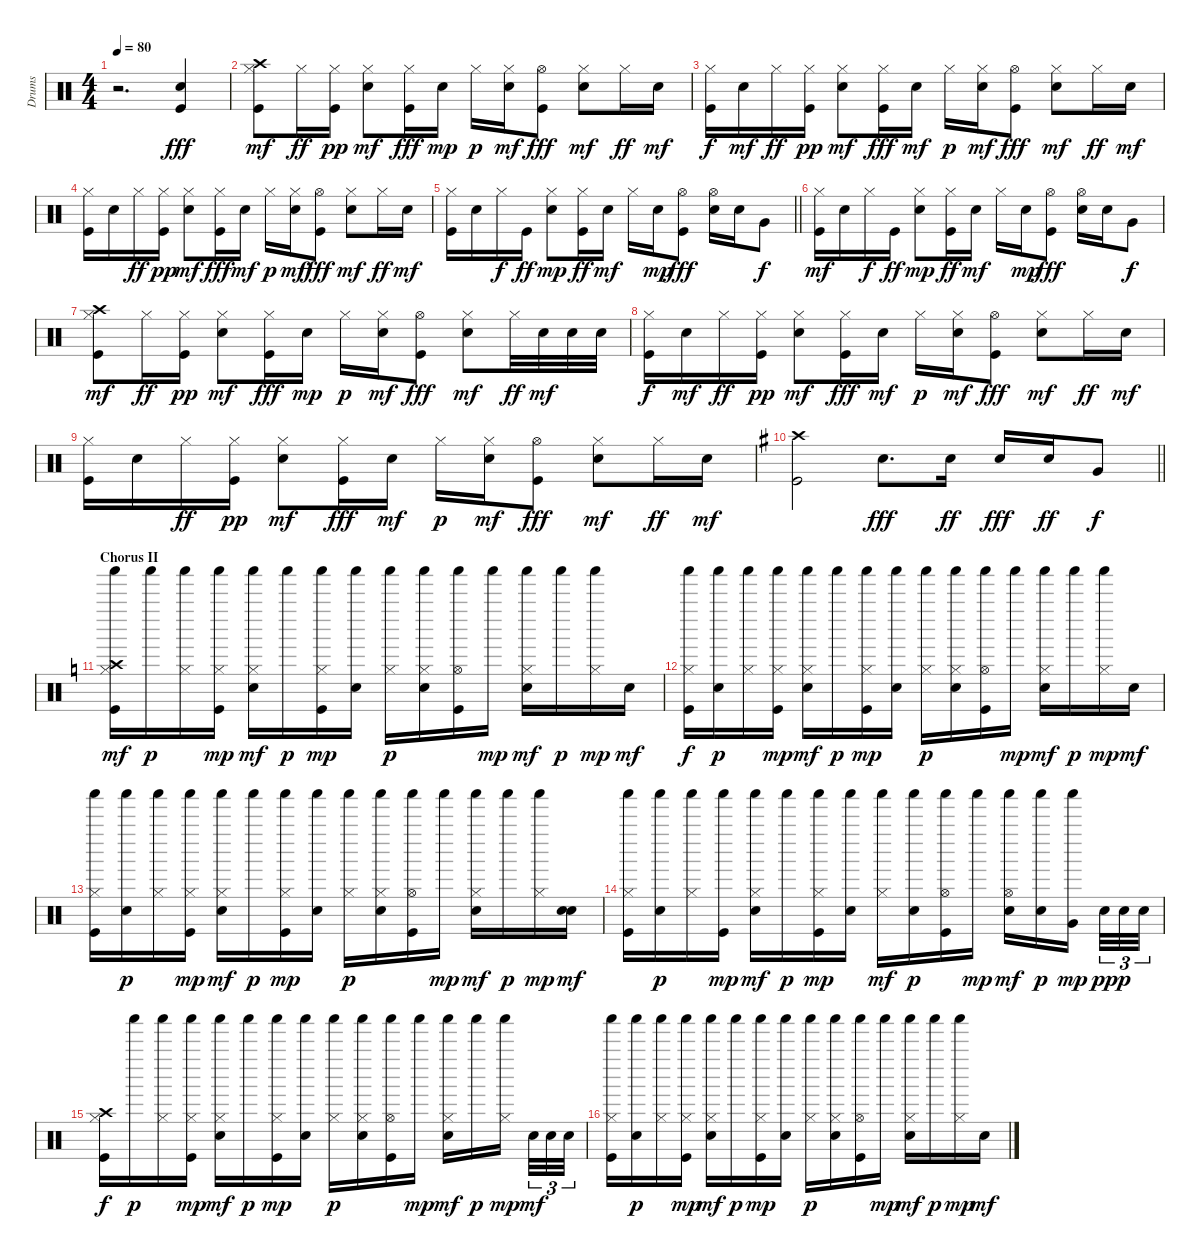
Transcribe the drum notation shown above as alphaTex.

\track ("Drums" "Drums") {instrument percussion}
\staff {score}
\articulation defaults
\ts (4 4)
\tempo 80
\clef neutral
\ks c
r.2{d dy mp} ("Kick (hit)" "Snare (hit) 2").4{dy fff} |
("Kick (hit)" "Crash high (hit)" "Hi-Hat (closed)").8{dy mf} "Hi-Hat (closed)".16{dy ff} ("Kick (hit)" "Hi-Hat (closed)").16{dy pp} ("Snare (hit) 2" "Hi-Hat (closed)").8{dy mf} ("Kick (hit)" "Hi-Hat (closed)").16{dy fff} "Snare (hit) 2".16{dy mp} "Hi-Hat (closed)".16{dy p} ("Snare (hit) 2" "Hi-Hat (closed)").16{dy mf} ("Kick (hit)" "Hi-Hat (open)").8{dy fff} ("Snare (hit) 2" "Hi-Hat (closed)").8{dy mf} "Hi-Hat (closed)".16{dy ff} "Snare (hit) 2".16{dy mf} |
("Kick (hit)" "Hi-Hat (closed)").16{dy f} "Snare (hit) 2".16{dy mf} "Hi-Hat (closed)".16{dy ff} ("Kick (hit)" "Hi-Hat (closed)").16{dy pp} ("Snare (hit) 2" "Hi-Hat (closed)").8{dy mf} ("Kick (hit)" "Hi-Hat (closed)").16{dy fff} "Snare (hit) 2".16{dy mf} "Hi-Hat (closed)".16{dy p} ("Snare (hit) 2" "Hi-Hat (closed)").16{dy mf} ("Kick (hit)" "Hi-Hat (open)").8{dy fff} ("Snare (hit) 2" "Hi-Hat (closed)").8{dy mf} "Hi-Hat (closed)".16{dy ff} "Snare (hit) 2".16{dy mf} |
("Kick (hit)" "Hi-Hat (closed)").16 "Snare (hit) 2".16 "Hi-Hat (closed)".16{dy ff} ("Kick (hit)" "Hi-Hat (closed)").16{dy pp} ("Snare (hit) 2" "Hi-Hat (closed)").8{dy mf} ("Kick (hit)" "Hi-Hat (closed)").16{dy fff} "Snare (hit) 2".16{dy mf} "Hi-Hat (closed)".16{dy p} ("Snare (hit) 2" "Hi-Hat (closed)").16{dy mf} ("Kick (hit)" "Hi-Hat (open)").8{dy fff} ("Snare (hit) 2" "Hi-Hat (closed)").8{dy mf} "Hi-Hat (closed)".16{dy ff} "Snare (hit) 2".16{dy mf} |
\barLineRight lightlight
("Kick (hit)" "Hi-Hat (closed)").16 "Snare (hit) 2".16 "Hi-Hat (closed)".16{dy f} "Kick (hit)".16{dy ff} ("Snare (hit) 2" "Hi-Hat (closed)").8{dy mp} ("Kick (hit)" "Hi-Hat (closed)").16{dy ff} "Snare (hit) 2".16{dy mf} "Hi-Hat (closed)".16 "Snare (hit) 2".16{dy mp} ("Kick (hit)" "Hi-Hat (open)").8{dy fff} ("Snare (hit) 2" "Hi-Hat (open)").16 "Snare (hit) 2".16 "Very Low Tom (hit)".8{dy f} |
\section ("" "")
("Kick (hit)" "Hi-Hat (closed)").16{dy mf} "Snare (hit) 2".16 "Hi-Hat (closed)".16{dy f} "Kick (hit)".16{dy ff} ("Snare (hit) 2" "Hi-Hat (closed)").8{dy mp} ("Kick (hit)" "Hi-Hat (closed)").16{dy ff} "Snare (hit) 2".16{dy mf} "Hi-Hat (closed)".16 "Snare (hit) 2".16{dy mp} ("Kick (hit)" "Hi-Hat (open)").8{dy fff} ("Snare (hit) 2" "Hi-Hat (open)").16 "Snare (hit) 2".16 "Very Low Tom (hit)".8{dy f} |
("Kick (hit)" "Crash high (hit)" "Hi-Hat (closed)").8{dy mf} "Hi-Hat (closed)".16{dy ff} ("Kick (hit)" "Hi-Hat (closed)").16{dy pp} ("Snare (hit) 2" "Hi-Hat (closed)").8{dy mf} ("Kick (hit)" "Hi-Hat (closed)").16{dy fff} "Snare (hit) 2".16{dy mp} "Hi-Hat (closed)".16{dy p} ("Snare (hit) 2" "Hi-Hat (closed)").16{dy mf} ("Kick (hit)" "Hi-Hat (open)").8{dy fff} ("Snare (hit) 2" "Hi-Hat (closed)").8{dy mf} "Hi-Hat (closed)".32{dy ff} "Snare (hit) 2".32{dy mf} "Snare (hit) 2".32 "Snare (hit) 2".32 |
("Hi-Hat (closed)" "Kick (hit)").16{dy f} "Snare (hit) 2".16{dy mf} "Hi-Hat (closed)".16{dy ff} ("Kick (hit)" "Hi-Hat (closed)").16{dy pp} ("Snare (hit) 2" "Hi-Hat (closed)").8{dy mf} ("Kick (hit)" "Hi-Hat (closed)").16{dy fff} "Snare (hit) 2".16{dy mf} "Hi-Hat (closed)".16{dy p} ("Snare (hit) 2" "Hi-Hat (closed)").16{dy mf} ("Kick (hit)" "Hi-Hat (open)").8{dy fff} ("Snare (hit) 2" "Hi-Hat (closed)").8{dy mf} "Hi-Hat (closed)".16{dy ff} "Snare (hit) 2".16{dy mf} |
("Kick (hit)" "Hi-Hat (closed)").16 "Snare (hit) 2".16 "Hi-Hat (closed)".16{dy ff} ("Kick (hit)" "Hi-Hat (closed)").16{dy pp} ("Snare (hit) 2" "Hi-Hat (closed)").8{dy mf} ("Kick (hit)" "Hi-Hat (closed)").16{dy fff} "Snare (hit) 2".16{dy mf} "Hi-Hat (closed)".16{dy p} ("Snare (hit) 2" "Hi-Hat (closed)").16{dy mf} ("Kick (hit)" "Hi-Hat (open)").8{dy fff} ("Snare (hit) 2" "Hi-Hat (closed)").8{dy mf} "Hi-Hat (closed)".16{dy ff} "Snare (hit) 2".16{dy mf} |
\barLineRight lightlight
\ks g
("Kick (hit)" "Crash high (hit)").2 "Snare (hit) 2".8{d dy fff} "Snare (hit) 2".16{dy ff} "Snare (hit) 2".16{dy fff} "Snare (hit) 2".16{dy ff} "Very Low Tom (hit)".8{dy f} |
\section ("" "Chorus II")
\ks c
("Kick (hit)" "Crash high (hit)" "Hi-Hat (closed)" "Shaker (hit)").16{dy mf} "Shaker (hit)".16{dy p} ("Hi-Hat (closed)" "Shaker (hit)").16 ("Kick (hit)" "Hi-Hat (closed)" "Shaker (hit)").16{dy mp} ("Snare (hit) 2" "Hi-Hat (closed)" "Shaker (hit)").16{dy mf} "Shaker (hit)".16{dy p} ("Kick (hit)" "Hi-Hat (closed)" "Shaker (hit)").16{dy mp} ("Snare (hit) 2" "Shaker (hit)").16 ("Hi-Hat (closed)" "Shaker (hit)").16{dy p} ("Snare (hit) 2" "Hi-Hat (closed)" "Shaker (hit)").16 ("Kick (hit)" "Hi-Hat (open)" "Shaker (hit)").16 "Shaker (hit)".16{dy mp} ("Snare (hit) 2" "Hi-Hat (closed)" "Shaker (hit)").16{dy mf} "Shaker (hit)".16{dy p} ("Hi-Hat (closed)" "Shaker (hit)").16{dy mp} "Snare (hit) 2".16{dy mf} |
("Kick (hit)" "Hi-Hat (closed)" "Shaker (hit)").16{dy f} ("Snare (hit) 2" "Shaker (hit)").16{dy p} ("Hi-Hat (closed)" "Shaker (hit)").16 ("Kick (hit)" "Hi-Hat (closed)" "Shaker (hit)").16{dy mp} ("Snare (hit) 2" "Hi-Hat (closed)" "Shaker (hit)").16{dy mf} "Shaker (hit)".16{dy p} ("Kick (hit)" "Hi-Hat (closed)" "Shaker (hit)").16{dy mp} ("Snare (hit) 2" "Shaker (hit)").16 ("Hi-Hat (closed)" "Shaker (hit)").16{dy p} ("Snare (hit) 2" "Hi-Hat (closed)" "Shaker (hit)").16 ("Kick (hit)" "Hi-Hat (open)" "Shaker (hit)").16 "Shaker (hit)".16{dy mp} ("Snare (hit) 2" "Hi-Hat (closed)" "Shaker (hit)").16{dy mf} "Shaker (hit)".16{dy p} ("Hi-Hat (closed)" "Shaker (hit)").16{dy mp} "Snare (hit) 2".16{dy mf} |
("Kick (hit)" "Hi-Hat (closed)" "Shaker (hit)").16 ("Snare (hit) 2" "Shaker (hit)").16{dy p} ("Hi-Hat (closed)" "Shaker (hit)").16 ("Kick (hit)" "Hi-Hat (closed)" "Shaker (hit)").16{dy mp} ("Snare (hit) 2" "Hi-Hat (closed)" "Shaker (hit)").16{dy mf} "Shaker (hit)".16{dy p} ("Kick (hit)" "Hi-Hat (closed)" "Shaker (hit)").16{dy mp} ("Snare (hit) 2" "Shaker (hit)").16 ("Hi-Hat (closed)" "Shaker (hit)").16{dy p} ("Snare (hit) 2" "Hi-Hat (closed)" "Shaker (hit)").16 ("Kick (hit)" "Hi-Hat (open)" "Shaker (hit)").16 "Shaker (hit)".16{dy mp} ("Snare (hit) 2" "Hi-Hat (closed)" "Shaker (hit)").16{dy mf} "Shaker (hit)".16{dy p} ("Hi-Hat (closed)" "Shaker (hit)").16{dy mp} ("Snare (hit) 2" "Snare (hit)").16{dy mf} |
("Kick (hit)" "Hi-Hat (closed)" "Shaker (hit)").16 ("Snare (hit) 2" "Shaker (hit)").16{dy p} ("Hi-Hat (closed)" "Shaker (hit)").16 ("Kick (hit)" "Shaker (hit)").16{dy mp} ("Snare (hit) 2" "Hi-Hat (closed)" "Shaker (hit)").16{dy mf} "Shaker (hit)".16{dy p} ("Kick (hit)" "Hi-Hat (closed)" "Shaker (hit)").16{dy mp} ("Snare (hit) 2" "Shaker (hit)").16 ("Hi-Hat (closed)" "Shaker (hit)").16{dy mf} ("Snare (hit) 2" "Shaker (hit)").16{dy p} ("Kick (hit)" "Hi-Hat (open)" "Shaker (hit)").16 "Shaker (hit)".16{dy mp} ("Snare (hit) 2" "Hi-Hat (open)" "Shaker (hit)").16{dy mf} ("Snare (hit) 2" "Shaker (hit)").16{dy p} ("Very Low Tom (hit)" "Shaker (hit)").16{dy mp beam splitsecondary} "Snare (hit) 2".32{tu (3 2) dy pp} "Snare (hit) 2".32{tu (3 2) dy p} "Snare (hit) 2".32{tu (3 2)} |
("Crash high (hit)" "Hi-Hat (closed)" "Kick (hit)").16{dy f} "Shaker (hit)".16{dy p} ("Hi-Hat (closed)" "Shaker (hit)").16 ("Kick (hit)" "Hi-Hat (closed)" "Shaker (hit)").16{dy mp} ("Snare (hit) 2" "Hi-Hat (closed)" "Shaker (hit)").16{dy mf} "Shaker (hit)".16{dy p} ("Kick (hit)" "Hi-Hat (closed)" "Shaker (hit)").16{dy mp} ("Snare (hit) 2" "Shaker (hit)").16 ("Hi-Hat (closed)" "Shaker (hit)").16{dy p} ("Snare (hit) 2" "Hi-Hat (closed)" "Shaker (hit)").16 ("Kick (hit)" "Hi-Hat (open)" "Shaker (hit)").16 "Shaker (hit)".16{dy mp} ("Snare (hit) 2" "Hi-Hat (closed)" "Shaker (hit)").16{dy mf} "Shaker (hit)".16{dy p} ("Hi-Hat (closed)" "Shaker (hit)").16{dy mp beam splitsecondary} "Snare (hit) 2".32{tu (3 2) dy mf} "Snare (hit) 2".32{tu (3 2)} "Snare (hit) 2".32{tu (3 2)} |
("Kick (hit)" "Hi-Hat (closed)" "Shaker (hit)").16 ("Snare (hit) 2" "Shaker (hit)").16{dy p} ("Hi-Hat (closed)" "Shaker (hit)").16 ("Kick (hit)" "Hi-Hat (closed)" "Shaker (hit)").16{dy mp} ("Snare (hit) 2" "Hi-Hat (closed)" "Shaker (hit)").16{dy mf} "Shaker (hit)".16{dy p} ("Kick (hit)" "Hi-Hat (closed)" "Shaker (hit)").16{dy mp} ("Snare (hit) 2" "Shaker (hit)").16 ("Hi-Hat (closed)" "Shaker (hit)").16{dy p} ("Snare (hit) 2" "Hi-Hat (closed)" "Shaker (hit)").16 ("Kick (hit)" "Hi-Hat (open)" "Shaker (hit)").16 "Shaker (hit)".16{dy mp} ("Snare (hit) 2" "Hi-Hat (closed)" "Shaker (hit)").16{dy mf} "Shaker (hit)".16{dy p} ("Hi-Hat (closed)" "Shaker (hit)").16{dy mp} "Snare (hit) 2".16{dy mf}
